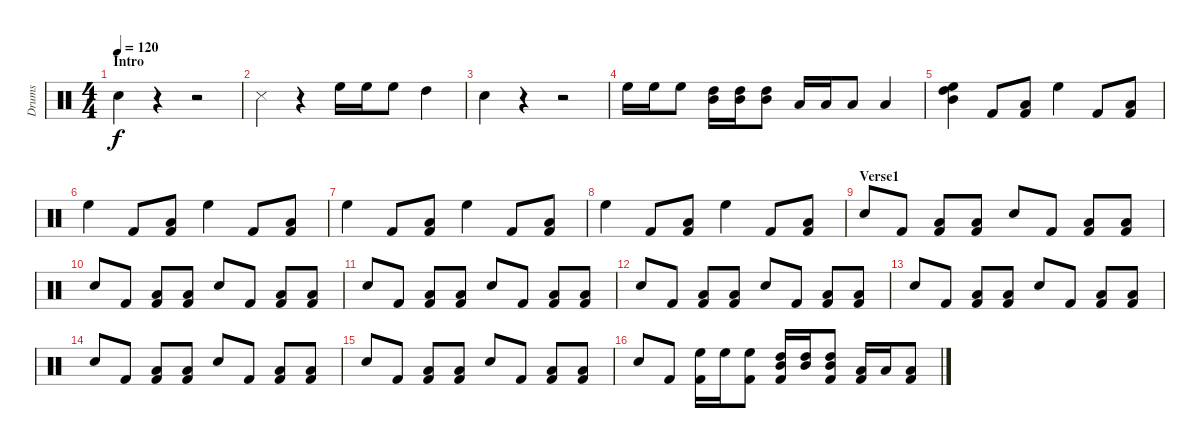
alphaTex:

\track ("Drums" "Drums") {instrument percussion}
\staff {score}
\articulation defaults
\ts (4 4)
\section ("" "Intro")
\tempo 120
\clef neutral
\ks c "Snare (hit) 2".4{dy f}
r.4 r.2 |
"Snare (side stick) 3".4 r.4 "High Floor Tom (hit)".16 "High Floor Tom (hit)".16 "High Floor Tom (hit)".8 "High Tom (hit)".4 |
"Snare (hit) 2".4 r.4 r.2 |
"High Floor Tom (hit)".16 "High Floor Tom (hit)".16 "High Floor Tom (hit)".8 ("High Tom (hit)" "Mid Tom (hit)").16 ("High Tom (hit)" "Mid Tom (hit)").16 ("High Tom (hit)" "Mid Tom (hit)").8 "Low Tom (hit)".16 "Low Tom (hit)".16 "Low Tom (hit)".8 "Low Tom (hit)".4 |
("High Floor Tom (hit)" "High Tom (hit)" "Mid Tom (hit)").4 "Kick (hit) 2".8 ("Low Tom (hit)" "Kick (hit) 2").8 "High Floor Tom (hit)".4 "Kick (hit) 2".8 ("Low Tom (hit)" "Kick (hit) 2").8 |
"High Floor Tom (hit)".4 "Kick (hit) 2".8 ("Low Tom (hit)" "Kick (hit) 2").8 "High Floor Tom (hit)".4 "Kick (hit) 2".8 ("Low Tom (hit)" "Kick (hit) 2").8 |
"High Floor Tom (hit)".4 "Kick (hit) 2".8 ("Low Tom (hit)" "Kick (hit) 2").8 "High Floor Tom (hit)".4 "Kick (hit) 2".8 ("Low Tom (hit)" "Kick (hit) 2").8 |
"High Floor Tom (hit)".4 "Kick (hit) 2".8 ("Low Tom (hit)" "Kick (hit) 2").8 "High Floor Tom (hit)".4 "Kick (hit) 2".8 ("Low Tom (hit)" "Kick (hit) 2").8 |
\section ("" "Verse1")
"Snare (hit) 2".8 "Kick (hit) 2".8 ("Low Tom (hit)" "Kick (hit) 2").8 ("Low Tom (hit)" "Kick (hit) 2").8 "Snare (hit) 2".8 "Kick (hit) 2".8 ("Low Tom (hit)" "Kick (hit) 2").8 ("Low Tom (hit)" "Kick (hit) 2").8 |
"Snare (hit) 2".8 "Kick (hit) 2".8 ("Low Tom (hit)" "Kick (hit) 2").8 ("Low Tom (hit)" "Kick (hit) 2").8 "Snare (hit) 2".8 "Kick (hit) 2".8 ("Low Tom (hit)" "Kick (hit) 2").8 ("Low Tom (hit)" "Kick (hit) 2").8 |
"Snare (hit) 2".8 "Kick (hit) 2".8 ("Low Tom (hit)" "Kick (hit) 2").8 ("Low Tom (hit)" "Kick (hit) 2").8 "Snare (hit) 2".8 "Kick (hit) 2".8 ("Low Tom (hit)" "Kick (hit) 2").8 ("Low Tom (hit)" "Kick (hit) 2").8 |
"Snare (hit) 2".8 "Kick (hit) 2".8 ("Low Tom (hit)" "Kick (hit) 2").8 ("Low Tom (hit)" "Kick (hit) 2").8 "Snare (hit) 2".8 "Kick (hit) 2".8 ("Low Tom (hit)" "Kick (hit) 2").8 ("Low Tom (hit)" "Kick (hit) 2").8 |
"Snare (hit) 2".8 "Kick (hit) 2".8 ("Low Tom (hit)" "Kick (hit) 2").8 ("Low Tom (hit)" "Kick (hit) 2").8 "Snare (hit) 2".8 "Kick (hit) 2".8 ("Low Tom (hit)" "Kick (hit) 2").8 ("Low Tom (hit)" "Kick (hit) 2").8 |
"Snare (hit) 2".8 "Kick (hit) 2".8 ("Low Tom (hit)" "Kick (hit) 2").8 ("Low Tom (hit)" "Kick (hit) 2").8 "Snare (hit) 2".8 "Kick (hit) 2".8 ("Low Tom (hit)" "Kick (hit) 2").8 ("Low Tom (hit)" "Kick (hit) 2").8 |
"Snare (hit) 2".8 "Kick (hit) 2".8 ("Low Tom (hit)" "Kick (hit) 2").8 ("Low Tom (hit)" "Kick (hit) 2").8 "Snare (hit) 2".8 "Kick (hit) 2".8 ("Low Tom (hit)" "Kick (hit) 2").8 ("Low Tom (hit)" "Kick (hit) 2").8 |
"Snare (hit) 2".8 "Kick (hit) 2".8 ("High Floor Tom (hit)" "Kick (hit) 2").16 "High Floor Tom (hit)".16 ("High Floor Tom (hit)" "Kick (hit) 2").8 ("High Tom (hit)" "Mid Tom (hit)" "Kick (hit) 2").16 ("High Tom (hit)" "Mid Tom (hit)").16 ("High Tom (hit)" "Mid Tom (hit)" "Kick (hit) 2").8 ("Low Tom (hit)" "Kick (hit) 2").16 "Low Tom (hit)".16 ("Low Tom (hit)" "Kick (hit) 2").8
